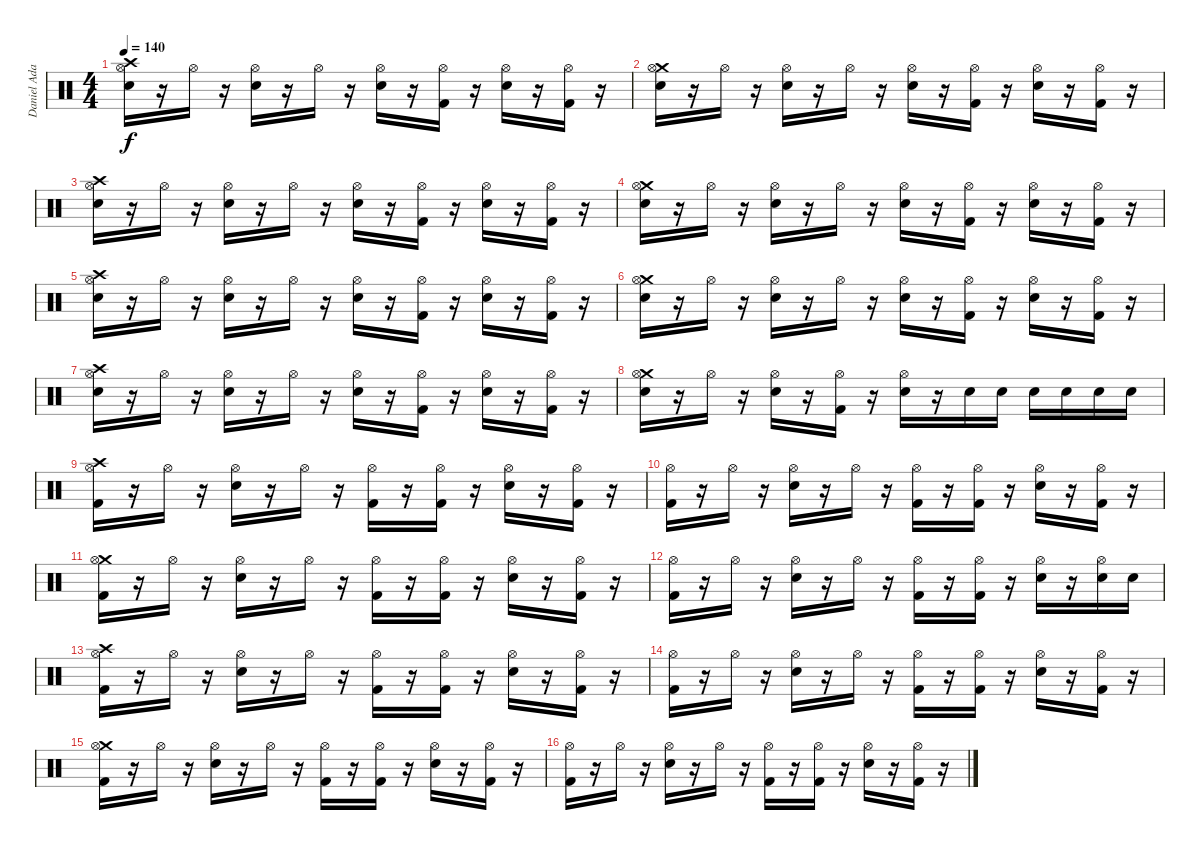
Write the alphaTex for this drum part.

\track ("Daniel Adair" "Daniel Ada") {instrument percussion}
\staff {score}
\articulation defaults
\ts (4 4)
\tempo 140
\clef neutral
\ks c
("Crash high (hit)" "Hi-Hat (open)" "Snare (hit) 2").16{dy f} r.16 "Hi-Hat (open)".16 r.16 ("Hi-Hat (open)" "Snare (hit) 2").16 r.16 "Hi-Hat (open)".16 r.16 ("Hi-Hat (open)" "Snare (hit) 2").16 r.16 ("Hi-Hat (open)" "Kick (hit) 2").16 r.16 ("Hi-Hat (open)" "Snare (hit) 2").16 r.16 ("Hi-Hat (open)" "Kick (hit) 2").16 r.16 |
("Crash medium (hit)" "Hi-Hat (open)" "Snare (hit) 2").16 r.16 "Hi-Hat (open)".16 r.16 ("Hi-Hat (open)" "Snare (hit) 2").16 r.16 "Hi-Hat (open)".16 r.16 ("Hi-Hat (open)" "Snare (hit) 2").16 r.16 ("Hi-Hat (open)" "Kick (hit) 2").16 r.16 ("Hi-Hat (open)" "Snare (hit) 2").16 r.16 ("Hi-Hat (open)" "Kick (hit) 2").16 r.16 |
("Crash high (hit)" "Hi-Hat (open)" "Snare (hit) 2").16 r.16 "Hi-Hat (open)".16 r.16 ("Hi-Hat (open)" "Snare (hit) 2").16 r.16 "Hi-Hat (open)".16 r.16 ("Hi-Hat (open)" "Snare (hit) 2").16 r.16 ("Hi-Hat (open)" "Kick (hit) 2").16 r.16 ("Hi-Hat (open)" "Snare (hit) 2").16 r.16 ("Hi-Hat (open)" "Kick (hit) 2").16 r.16 |
("Crash medium (hit)" "Hi-Hat (open)" "Snare (hit) 2").16 r.16 "Hi-Hat (open)".16 r.16 ("Hi-Hat (open)" "Snare (hit) 2").16 r.16 "Hi-Hat (open)".16 r.16 ("Hi-Hat (open)" "Snare (hit) 2").16 r.16 ("Hi-Hat (open)" "Kick (hit) 2").16 r.16 ("Hi-Hat (open)" "Snare (hit) 2").16 r.16 ("Hi-Hat (open)" "Kick (hit) 2").16 r.16 |
("Crash high (hit)" "Hi-Hat (open)" "Snare (hit) 2").16 r.16 "Hi-Hat (open)".16 r.16 ("Hi-Hat (open)" "Snare (hit) 2").16 r.16 "Hi-Hat (open)".16 r.16 ("Hi-Hat (open)" "Snare (hit) 2").16 r.16 ("Hi-Hat (open)" "Kick (hit) 2").16 r.16 ("Hi-Hat (open)" "Snare (hit) 2").16 r.16 ("Hi-Hat (open)" "Kick (hit) 2").16 r.16 |
("Crash medium (hit)" "Hi-Hat (open)" "Snare (hit) 2").16 r.16 "Hi-Hat (open)".16 r.16 ("Hi-Hat (open)" "Snare (hit) 2").16 r.16 "Hi-Hat (open)".16 r.16 ("Hi-Hat (open)" "Snare (hit) 2").16 r.16 ("Hi-Hat (open)" "Kick (hit) 2").16 r.16 ("Hi-Hat (open)" "Snare (hit) 2").16 r.16 ("Hi-Hat (open)" "Kick (hit) 2").16 r.16 |
("Crash high (hit)" "Hi-Hat (open)" "Snare (hit) 2").16 r.16 "Hi-Hat (open)".16 r.16 ("Hi-Hat (open)" "Snare (hit) 2").16 r.16 "Hi-Hat (open)".16 r.16 ("Hi-Hat (open)" "Snare (hit) 2").16 r.16 ("Hi-Hat (open)" "Kick (hit) 2").16 r.16 ("Hi-Hat (open)" "Snare (hit) 2").16 r.16 ("Hi-Hat (open)" "Kick (hit) 2").16 r.16 |
("Crash medium (hit)" "Hi-Hat (open)" "Snare (hit) 2").16 r.16 "Hi-Hat (open)".16 r.16 ("Hi-Hat (open)" "Snare (hit) 2").16 r.16 ("Hi-Hat (open)" "Kick (hit) 2").16 r.16 ("Hi-Hat (open)" "Snare (hit) 2").16 r.16 "Snare (hit) 2".16 "Snare (hit) 2".16 "Snare (hit) 2".16 "Snare (hit) 2".16 "Snare (hit) 2".16 "Snare (hit) 2".16 |
("Crash high (hit)" "Hi-Hat (open)" "Kick (hit) 2").16 r.16 "Hi-Hat (open)".16 r.16 ("Hi-Hat (open)" "Snare (hit) 2").16 r.16 "Hi-Hat (open)".16 r.16 ("Hi-Hat (open)" "Kick (hit) 2").16 r.16 ("Hi-Hat (open)" "Kick (hit) 2").16 r.16 ("Hi-Hat (open)" "Snare (hit) 2").16 r.16 ("Hi-Hat (open)" "Kick (hit) 2").16 r.16 |
("Hi-Hat (open)" "Kick (hit) 2").16 r.16 "Hi-Hat (open)".16 r.16 ("Hi-Hat (open)" "Snare (hit) 2").16 r.16 "Hi-Hat (open)".16 r.16 ("Hi-Hat (open)" "Kick (hit) 2").16 r.16 ("Hi-Hat (open)" "Kick (hit) 2").16 r.16 ("Hi-Hat (open)" "Snare (hit) 2").16 r.16 ("Hi-Hat (open)" "Kick (hit) 2").16 r.16 |
("Crash medium (hit)" "Hi-Hat (open)" "Kick (hit) 2").16 r.16 "Hi-Hat (open)".16 r.16 ("Hi-Hat (open)" "Snare (hit) 2").16 r.16 "Hi-Hat (open)".16 r.16 ("Hi-Hat (open)" "Kick (hit) 2").16 r.16 ("Hi-Hat (open)" "Kick (hit) 2").16 r.16 ("Hi-Hat (open)" "Snare (hit) 2").16 r.16 ("Hi-Hat (open)" "Kick (hit) 2").16 r.16 |
("Hi-Hat (open)" "Kick (hit) 2").16 r.16 "Hi-Hat (open)".16 r.16 ("Hi-Hat (open)" "Snare (hit) 2").16 r.16 "Hi-Hat (open)".16 r.16 ("Hi-Hat (open)" "Kick (hit) 2").16 r.16 ("Hi-Hat (open)" "Kick (hit) 2").16 r.16 ("Hi-Hat (open)" "Snare (hit) 2").16 r.16 ("Hi-Hat (open)" "Snare (hit) 2").16 "Snare (hit) 2".16 |
("Crash high (hit)" "Hi-Hat (open)" "Kick (hit) 2").16 r.16 "Hi-Hat (open)".16 r.16 ("Hi-Hat (open)" "Snare (hit) 2").16 r.16 "Hi-Hat (open)".16 r.16 ("Hi-Hat (open)" "Kick (hit) 2").16 r.16 ("Hi-Hat (open)" "Kick (hit) 2").16 r.16 ("Hi-Hat (open)" "Snare (hit) 2").16 r.16 ("Hi-Hat (open)" "Kick (hit) 2").16 r.16 |
("Hi-Hat (open)" "Kick (hit) 2").16 r.16 "Hi-Hat (open)".16 r.16 ("Hi-Hat (open)" "Snare (hit) 2").16 r.16 "Hi-Hat (open)".16 r.16 ("Hi-Hat (open)" "Kick (hit) 2").16 r.16 ("Hi-Hat (open)" "Kick (hit) 2").16 r.16 ("Hi-Hat (open)" "Snare (hit) 2").16 r.16 ("Hi-Hat (open)" "Kick (hit) 2").16 r.16 |
("Crash medium (hit)" "Hi-Hat (open)" "Kick (hit) 2").16 r.16 "Hi-Hat (open)".16 r.16 ("Hi-Hat (open)" "Snare (hit) 2").16 r.16 "Hi-Hat (open)".16 r.16 ("Hi-Hat (open)" "Kick (hit) 2").16 r.16 ("Hi-Hat (open)" "Kick (hit) 2").16 r.16 ("Hi-Hat (open)" "Snare (hit) 2").16 r.16 ("Hi-Hat (open)" "Kick (hit) 2").16 r.16 |
("Hi-Hat (open)" "Kick (hit) 2").16 r.16 "Hi-Hat (open)".16 r.16 ("Hi-Hat (open)" "Snare (hit) 2").16 r.16 "Hi-Hat (open)".16 r.16 ("Hi-Hat (open)" "Kick (hit) 2").16 r.16 ("Hi-Hat (open)" "Kick (hit) 2").16 r.16 ("Hi-Hat (open)" "Snare (hit) 2").16 r.16 ("Hi-Hat (open)" "Kick (hit) 2").16 r.16
